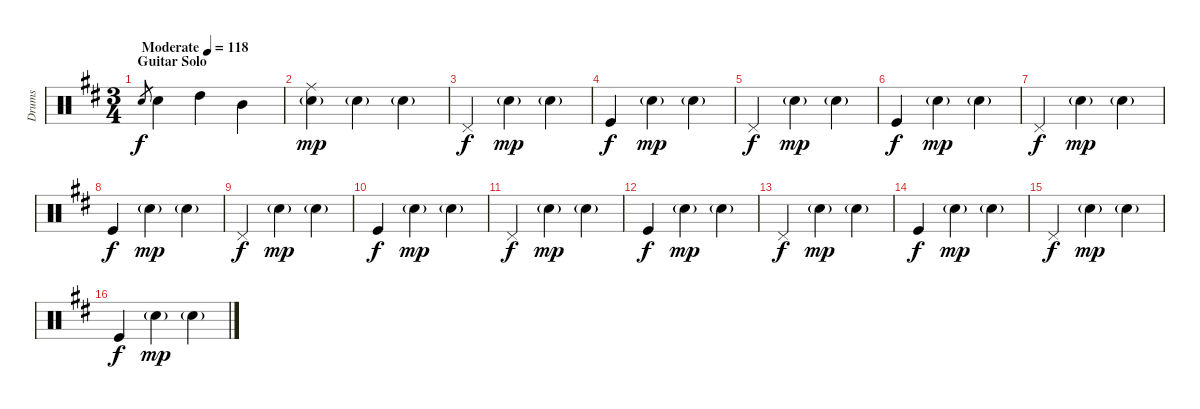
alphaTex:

\track ("Drums" "Drums") {instrument percussion}
\staff {score}
\articulation defaults
\ts (3 4)
\section ("" "Guitar Solo")
\tempo (118 "Moderate")
\clef neutral
\ks d "Snare (hit) 2".8{gr dy f} "Snare (hit) 2".4 "High Tom (hit)".4 "Mid Tom (hit)".4
|
("Ride (middle)" "Snare (hit) 2"{g}).4{dy mp} "Snare (hit) 2"{g}.4 "Snare (hit) 2"{g}.4 |
"Pedal Hi-Hat (hit)".4{dy f} "Snare (hit) 2"{g}.4{dy mp} "Snare (hit) 2"{g}.4 |
"Kick (hit)".4{dy f} "Snare (hit) 2"{g}.4{dy mp} "Snare (hit) 2"{g}.4 |
"Pedal Hi-Hat (hit)".4{dy f} "Snare (hit) 2"{g}.4{dy mp} "Snare (hit) 2"{g}.4 |
"Kick (hit)".4{dy f} "Snare (hit) 2"{g}.4{dy mp} "Snare (hit) 2"{g}.4 |
"Pedal Hi-Hat (hit)".4{dy f} "Snare (hit) 2"{g}.4{dy mp} "Snare (hit) 2"{g}.4 |
"Kick (hit)".4{dy f} "Snare (hit) 2"{g}.4{dy mp} "Snare (hit) 2"{g}.4 |
"Pedal Hi-Hat (hit)".4{dy f} "Snare (hit) 2"{g}.4{dy mp} "Snare (hit) 2"{g}.4 |
"Kick (hit)".4{dy f} "Snare (hit) 2"{g}.4{dy mp} "Snare (hit) 2"{g}.4 |
"Pedal Hi-Hat (hit)".4{dy f} "Snare (hit) 2"{g}.4{dy mp} "Snare (hit) 2"{g}.4 |
"Kick (hit)".4{dy f} "Snare (hit) 2"{g}.4{dy mp} "Snare (hit) 2"{g}.4 |
"Pedal Hi-Hat (hit)".4{dy f} "Snare (hit) 2"{g}.4{dy mp} "Snare (hit) 2"{g}.4 |
"Kick (hit)".4{dy f} "Snare (hit) 2"{g}.4{dy mp} "Snare (hit) 2"{g}.4 |
"Pedal Hi-Hat (hit)".4{dy f} "Snare (hit) 2"{g}.4{dy mp} "Snare (hit) 2"{g}.4 |
"Kick (hit)".4{dy f} "Snare (hit) 2"{g}.4{dy mp} "Snare (hit) 2"{g}.4
